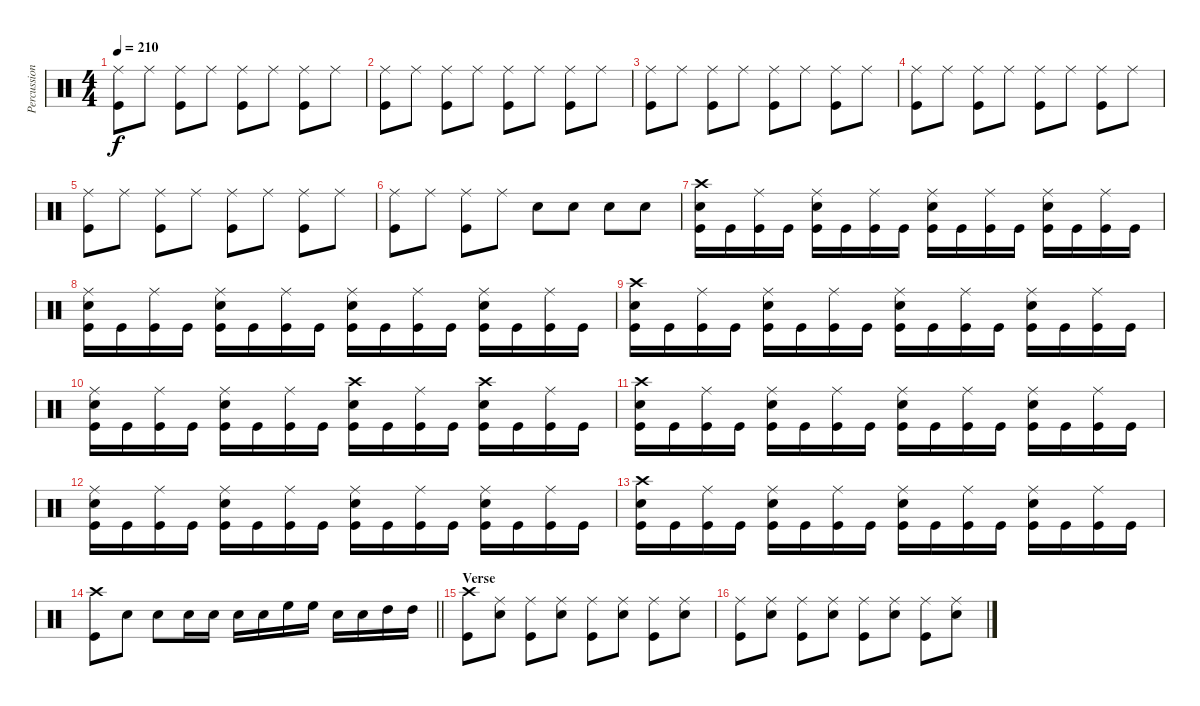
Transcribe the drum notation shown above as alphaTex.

\track ("Percussion" "Percussion") {instrument percussion}
\staff {score}
\articulation defaults
\ts (4 4)
\tempo 210
\clef neutral
\ks c
("Ride (middle)" "Kick (hit)").8{dy f} "Ride (middle)".8 ("Ride (middle)" "Kick (hit)").8 "Ride (middle)".8 ("Ride (middle)" "Kick (hit)").8 "Ride (middle)".8 ("Ride (middle)" "Kick (hit)").8 "Ride (middle)".8 |
("Ride (middle)" "Kick (hit)").8 "Ride (middle)".8 ("Ride (middle)" "Kick (hit)").8 "Ride (middle)".8 ("Ride (middle)" "Kick (hit)").8 "Ride (middle)".8 ("Ride (middle)" "Kick (hit)").8 "Ride (middle)".8 |
("Ride (middle)" "Kick (hit)").8 "Ride (middle)".8 ("Ride (middle)" "Kick (hit)").8 "Ride (middle)".8 ("Ride (middle)" "Kick (hit)").8 "Ride (middle)".8 ("Ride (middle)" "Kick (hit)").8 "Ride (middle)".8 |
("Ride (middle)" "Kick (hit)").8 "Ride (middle)".8 ("Ride (middle)" "Kick (hit)").8 "Ride (middle)".8 ("Ride (middle)" "Kick (hit)").8 "Ride (middle)".8 ("Ride (middle)" "Kick (hit)").8 "Ride (middle)".8 |
("Ride (middle)" "Kick (hit)").8 "Ride (middle)".8 ("Ride (middle)" "Kick (hit)").8 "Ride (middle)".8 ("Ride (middle)" "Kick (hit)").8 "Ride (middle)".8 ("Ride (middle)" "Kick (hit)").8 "Ride (middle)".8 |
("Ride (middle)" "Kick (hit)").8 "Ride (middle)".8 ("Ride (middle)" "Kick (hit)").8 "Ride (middle)".8 "Snare (hit) 2".8 "Snare (hit) 2".8 "Snare (hit) 2".8 "Snare (hit) 2".8 |
("Crash high (hit)" "Snare (hit) 2" "Kick (hit)").16 "Kick (hit)".16 ("Ride (middle)" "Kick (hit)").16 "Kick (hit)".16 ("Ride (middle)" "Snare (hit) 2" "Kick (hit)").16 "Kick (hit)".16 ("Ride (middle)" "Kick (hit)").16 "Kick (hit)".16 ("Ride (middle)" "Snare (hit) 2" "Kick (hit)").16 "Kick (hit)".16 ("Ride (middle)" "Kick (hit)").16 "Kick (hit)".16 ("Ride (middle)" "Snare (hit) 2" "Kick (hit)").16 "Kick (hit)".16 ("Ride (middle)" "Kick (hit)").16 "Kick (hit)".16 |
("Ride (middle)" "Snare (hit) 2" "Kick (hit)").16 "Kick (hit)".16 ("Ride (middle)" "Kick (hit)").16 "Kick (hit)".16 ("Ride (middle)" "Snare (hit) 2" "Kick (hit)").16 "Kick (hit)".16 ("Ride (middle)" "Kick (hit)").16 "Kick (hit)".16 ("Ride (middle)" "Snare (hit) 2" "Kick (hit)").16 "Kick (hit)".16 ("Ride (middle)" "Kick (hit)").16 "Kick (hit)".16 ("Ride (middle)" "Snare (hit) 2" "Kick (hit)").16 "Kick (hit)".16 ("Ride (middle)" "Kick (hit)").16 "Kick (hit)".16 |
("Crash high (hit)" "Snare (hit) 2" "Kick (hit)").16 "Kick (hit)".16 ("Ride (middle)" "Kick (hit)").16 "Kick (hit)".16 ("Ride (middle)" "Snare (hit) 2" "Kick (hit)").16 "Kick (hit)".16 ("Ride (middle)" "Kick (hit)").16 "Kick (hit)".16 ("Ride (middle)" "Snare (hit) 2" "Kick (hit)").16 "Kick (hit)".16 ("Ride (middle)" "Kick (hit)").16 "Kick (hit)".16 ("Ride (middle)" "Snare (hit) 2" "Kick (hit)").16 "Kick (hit)".16 ("Ride (middle)" "Kick (hit)").16 "Kick (hit)".16 |
("Ride (middle)" "Snare (hit) 2" "Kick (hit)").16 "Kick (hit)".16 ("Ride (middle)" "Kick (hit)").16 "Kick (hit)".16 ("Ride (middle)" "Snare (hit) 2" "Kick (hit)").16 "Kick (hit)".16 ("Ride (middle)" "Kick (hit)").16 "Kick (hit)".16 ("Crash high (hit)" "Snare (hit) 2" "Kick (hit)").16 "Kick (hit)".16 ("Ride (middle)" "Kick (hit)").16 "Kick (hit)".16 ("Crash high (hit)" "Snare (hit) 2" "Kick (hit)").16 "Kick (hit)".16 ("Ride (middle)" "Kick (hit)").16 "Kick (hit)".16 |
("Crash high (hit)" "Snare (hit) 2" "Kick (hit)").16 "Kick (hit)".16 ("Ride (middle)" "Kick (hit)").16 "Kick (hit)".16 ("Ride (middle)" "Snare (hit) 2" "Kick (hit)").16 "Kick (hit)".16 ("Ride (middle)" "Kick (hit)").16 "Kick (hit)".16 ("Ride (middle)" "Snare (hit) 2" "Kick (hit)").16 "Kick (hit)".16 ("Ride (middle)" "Kick (hit)").16 "Kick (hit)".16 ("Ride (middle)" "Snare (hit) 2" "Kick (hit)").16 "Kick (hit)".16 ("Ride (middle)" "Kick (hit)").16 "Kick (hit)".16 |
("Ride (middle)" "Snare (hit) 2" "Kick (hit)").16 "Kick (hit)".16 ("Ride (middle)" "Kick (hit)").16 "Kick (hit)".16 ("Ride (middle)" "Snare (hit) 2" "Kick (hit)").16 "Kick (hit)".16 ("Ride (middle)" "Kick (hit)").16 "Kick (hit)".16 ("Ride (middle)" "Snare (hit) 2" "Kick (hit)").16 "Kick (hit)".16 ("Ride (middle)" "Kick (hit)").16 "Kick (hit)".16 ("Ride (middle)" "Snare (hit) 2" "Kick (hit)").16 "Kick (hit)".16 ("Ride (middle)" "Kick (hit)").16 "Kick (hit)".16 |
("Crash high (hit)" "Snare (hit) 2" "Kick (hit)").16 "Kick (hit)".16 ("Ride (middle)" "Kick (hit)").16 "Kick (hit)".16 ("Ride (middle)" "Snare (hit) 2" "Kick (hit)").16 "Kick (hit)".16 ("Ride (middle)" "Kick (hit)").16 "Kick (hit)".16 ("Ride (middle)" "Snare (hit) 2" "Kick (hit)").16 "Kick (hit)".16 ("Ride (middle)" "Kick (hit)").16 "Kick (hit)".16 ("Ride (middle)" "Snare (hit) 2" "Kick (hit)").16 "Kick (hit)".16 ("Ride (middle)" "Kick (hit)").16 "Kick (hit)".16 |
\barLineRight lightlight
("Crash high (hit)" "Kick (hit)").8 "Snare (hit) 2".8 "Snare (hit) 2".8 "Snare (hit) 2".16 "Snare (hit) 2".16 "Snare (hit) 2".16 "Snare (hit) 2".16 "High Floor Tom (hit)".16 "High Floor Tom (hit)".16 "Snare (hit) 2".16 "Snare (hit) 2".16 "High Tom (hit)".16 "High Tom (hit)".16 |
\section ("" "Verse")
("Crash high (hit)" "Kick (hit)").8 ("Ride (middle)" "Snare (hit) 2").8 ("Ride (middle)" "Kick (hit)").8 ("Ride (middle)" "Snare (hit) 2").8 ("Ride (middle)" "Kick (hit)").8 ("Ride (middle)" "Snare (hit) 2").8 ("Ride (middle)" "Kick (hit)").8 ("Ride (middle)" "Snare (hit) 2").8 |
("Ride (middle)" "Kick (hit)").8 ("Ride (middle)" "Snare (hit) 2").8 ("Ride (middle)" "Kick (hit)").8 ("Ride (middle)" "Snare (hit) 2").8 ("Ride (middle)" "Kick (hit)").8 ("Ride (middle)" "Snare (hit) 2").8 ("Ride (middle)" "Kick (hit)").8 ("Ride (middle)" "Snare (hit) 2").8
